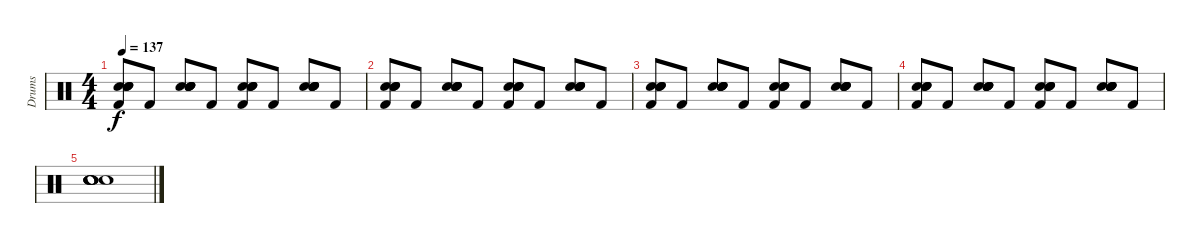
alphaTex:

\track ("Drums" "Drums") {instrument percussion}
\staff {score}
\articulation defaults
\ts (4 4)
\tempo 137
\clef neutral
\ks c
("Kick (hit) 2" "Snare (hit) 2" "Snare (hit) 2" "Snare (hit) 2" "Snare (hit) 2").8{dy f} "Kick (hit) 2".8 ("Snare (hit) 2" "Snare (hit) 2" "Snare (hit) 2" "Snare (hit) 2" "Snare (hit) 2").8 "Kick (hit) 2".8 ("Kick (hit) 2" "Snare (hit) 2" "Snare (hit) 2" "Snare (hit) 2" "Snare (hit) 2").8 "Kick (hit) 2".8 ("Snare (hit) 2" "Snare (hit) 2" "Snare (hit) 2" "Snare (hit) 2" "Snare (hit) 2").8 "Kick (hit) 2".8 |
("Kick (hit) 2" "Snare (hit) 2" "Snare (hit) 2" "Snare (hit) 2" "Snare (hit) 2").8 "Kick (hit) 2".8 ("Snare (hit) 2" "Snare (hit) 2" "Snare (hit) 2" "Snare (hit) 2" "Snare (hit) 2").8 "Kick (hit) 2".8 ("Kick (hit) 2" "Snare (hit) 2" "Snare (hit) 2" "Snare (hit) 2" "Snare (hit) 2").8 "Kick (hit) 2".8 ("Snare (hit) 2" "Snare (hit) 2" "Snare (hit) 2" "Snare (hit) 2" "Snare (hit) 2").8 "Kick (hit) 2".8 |
("Kick (hit) 2" "Snare (hit) 2" "Snare (hit) 2" "Snare (hit) 2" "Snare (hit) 2").8 "Kick (hit) 2".8 ("Snare (hit) 2" "Snare (hit) 2" "Snare (hit) 2" "Snare (hit) 2" "Snare (hit) 2").8 "Kick (hit) 2".8 ("Kick (hit) 2" "Snare (hit) 2" "Snare (hit) 2" "Snare (hit) 2" "Snare (hit) 2").8 "Kick (hit) 2".8 ("Snare (hit) 2" "Snare (hit) 2" "Snare (hit) 2" "Snare (hit) 2" "Snare (hit) 2").8 "Kick (hit) 2".8 |
("Kick (hit) 2" "Snare (hit) 2" "Snare (hit) 2" "Snare (hit) 2" "Snare (hit) 2").8 "Kick (hit) 2".8 ("Snare (hit) 2" "Snare (hit) 2" "Snare (hit) 2" "Snare (hit) 2" "Snare (hit) 2").8 "Kick (hit) 2".8 ("Kick (hit) 2" "Snare (hit) 2" "Snare (hit) 2" "Snare (hit) 2" "Snare (hit) 2").8 "Kick (hit) 2".8 ("Snare (hit) 2" "Snare (hit) 2" "Snare (hit) 2" "Snare (hit) 2" "Snare (hit) 2").8 "Kick (hit) 2".8 |
("Electric Snare (hit)" "Electric Snare (hit)" "Electric Snare (hit)" "Electric Snare (hit)" "Electric Snare (hit)").1
